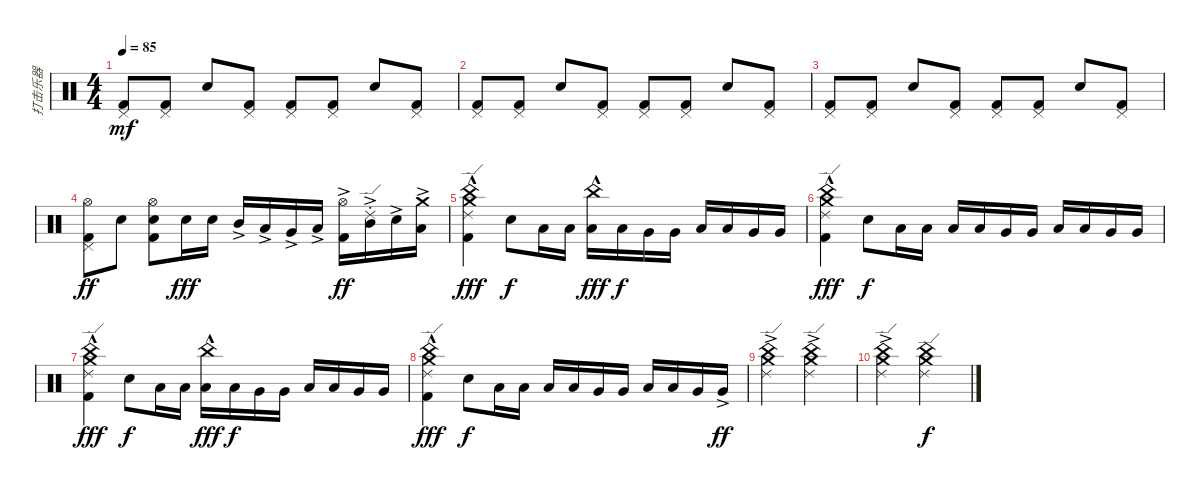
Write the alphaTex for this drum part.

\track ("打击乐器" "打击乐器") {instrument percussion}
\staff {score}
\articulation defaults
\ts (4 4)
\tempo 85
\clef neutral
\ks c
("Pedal Hi-Hat (hit)" "Kick (hit) 2").8{dy mf volume 13} ("Pedal Hi-Hat (hit)" "Kick (hit) 2").8 "Electric Snare (hit)".8 ("Pedal Hi-Hat (hit)" "Kick (hit) 2").8 ("Pedal Hi-Hat (hit)" "Kick (hit) 2").8 ("Pedal Hi-Hat (hit)" "Kick (hit) 2").8 "Electric Snare (hit)".8 ("Pedal Hi-Hat (hit)" "Kick (hit) 2").8 |
("Pedal Hi-Hat (hit)" "Kick (hit) 2").8{volume 13} ("Pedal Hi-Hat (hit)" "Kick (hit) 2").8 "Electric Snare (hit)".8 ("Pedal Hi-Hat (hit)" "Kick (hit) 2").8 ("Pedal Hi-Hat (hit)" "Kick (hit) 2").8 ("Pedal Hi-Hat (hit)" "Kick (hit) 2").8 "Electric Snare (hit)".8 ("Pedal Hi-Hat (hit)" "Kick (hit) 2").8 |
("Pedal Hi-Hat (hit)" "Kick (hit) 2").8{volume 13} ("Pedal Hi-Hat (hit)" "Kick (hit) 2").8 "Electric Snare (hit)".8 ("Pedal Hi-Hat (hit)" "Kick (hit) 2").8 ("Pedal Hi-Hat (hit)" "Kick (hit) 2").8 ("Pedal Hi-Hat (hit)" "Kick (hit) 2").8 "Electric Snare (hit)".8 ("Pedal Hi-Hat (hit)" "Kick (hit) 2").8 |
("Hi-Hat (open)" "Pedal Hi-Hat (hit)" "Kick (hit) 2").8{dy ff} "Electric Snare (hit)".8 ("Hi-Hat (open)" "Electric Snare (hit)" "Kick (hit) 2").8 "Electric Snare (hit)".16{dy fff} "Electric Snare (hit)".16 "Mid Tom (hit)"{ac}.16 "Low Tom (hit)"{ac}.16 "Very Low Tom (hit)"{ac}.16 "Low Floor Tom (hit)"{ac}.16 ("Hi-Hat (open)"{ac} "Kick (hit) 2"{ac}).16{dy ff} ("Ride (edge) 2"{ac st} "Mid Tom (hit)"{ac}).16 "Electric Snare (hit)"{ac}.16 ("Crash medium (hit)"{ac} "Low Tom (hit)"{ac}).16 |
("Crash medium (hit)"{hac} "Ride (edge) 2"{hac} "China (hit)"{hac} "Kick (hit) 2"{hac}).4{dy fff volume 16} "Electric Snare (hit)".8{dy f} "Low Tom (hit)".16 "Low Tom (hit)".16 ("China (hit)"{hac} "Low Tom (hit)").16{dy fff} "Low Tom (hit)".16{dy f} "Very Low Tom (hit)".16 "Very Low Tom (hit)".16 "Low Tom (hit)".16 "Low Tom (hit)".16 "Very Low Tom (hit)".16 "Very Low Tom (hit)".16 |
("Crash medium (hit)"{hac} "Ride (edge) 2"{hac} "China (hit)"{hac} "Kick (hit) 2"{hac}).4{dy fff} "Electric Snare (hit)".8{dy f} "Low Tom (hit)".16 "Low Tom (hit)".16 "Low Tom (hit)".16 "Low Tom (hit)".16 "Very Low Tom (hit)".16 "Very Low Tom (hit)".16 "Low Tom (hit)".16 "Low Tom (hit)".16 "Very Low Tom (hit)".16 "Very Low Tom (hit)".16 |
("Crash medium (hit)"{hac} "Ride (edge) 2"{hac} "China (hit)"{hac} "Kick (hit) 2"{hac}).4{dy fff volume 16} "Electric Snare (hit)".8{dy f} "Low Tom (hit)".16 "Low Tom (hit)".16 ("China (hit)"{hac} "Low Tom (hit)").16{dy fff} "Low Tom (hit)".16{dy f} "Very Low Tom (hit)".16 "Very Low Tom (hit)".16 "Low Tom (hit)".16 "Low Tom (hit)".16 "Very Low Tom (hit)".16 "Very Low Tom (hit)".16 |
("Crash medium (hit)"{hac} "Ride (edge) 2"{hac} "China (hit)"{hac} "Kick (hit) 2"{hac}).4{dy fff} "Electric Snare (hit)".8{dy f} "Low Tom (hit)".16 "Low Tom (hit)".16 "Low Tom (hit)".16 "Low Tom (hit)".16 "Very Low Tom (hit)".16 "Very Low Tom (hit)".16 "Low Tom (hit)".16 "Low Tom (hit)".16 "Very Low Tom (hit)".16 "Very Low Tom (hit)"{ac}.16{dy ff} |
("Crash medium (hit)"{ac} "Ride (edge) 2"{ac} "China (hit)"{ac}).2 ("Crash medium (hit)"{ac} "Ride (edge) 2"{ac} "China (hit)"{ac}).2 |
("Crash medium (hit)"{ac} "Ride (edge) 2"{ac} "China (hit)"{ac}).2 ("Ride (edge) 2" "Crash medium (hit)" "China (hit)").2{dy f}
